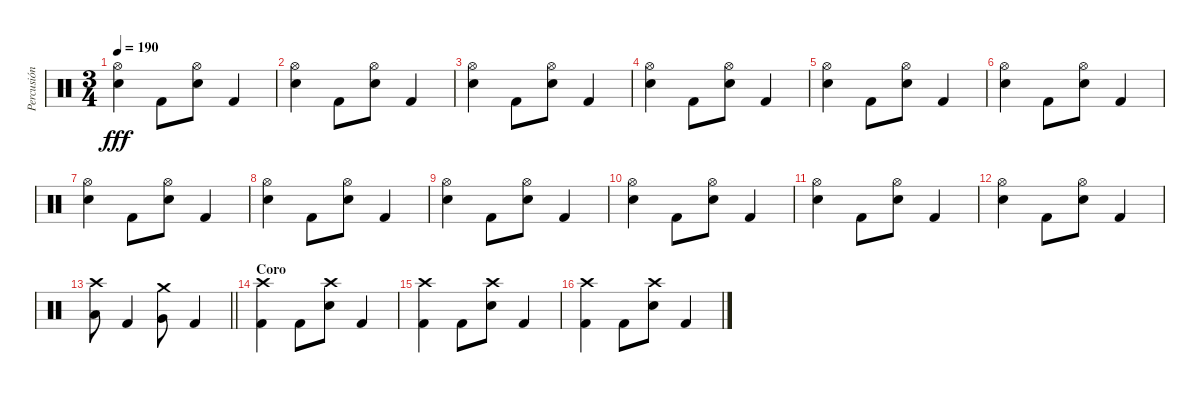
\track ("Percusión" "Percusión") {instrument percussion}
\staff {score}
\articulation defaults
\ts (3 4)
\tempo 190
\clef neutral
\ks c
("Hi-Hat (open)" "Electric Snare (hit)").4{dy fff} "Kick (hit) 2".8 ("Hi-Hat (open)" "Electric Snare (hit)").8 "Kick (hit) 2".4 |
("Hi-Hat (open)" "Electric Snare (hit)").4 "Kick (hit) 2".8 ("Hi-Hat (open)" "Electric Snare (hit)").8 "Kick (hit) 2".4 |
("Hi-Hat (open)" "Electric Snare (hit)").4 "Kick (hit) 2".8 ("Hi-Hat (open)" "Electric Snare (hit)").8 "Kick (hit) 2".4 |
("Hi-Hat (open)" "Electric Snare (hit)").4 "Kick (hit) 2".8 ("Hi-Hat (open)" "Electric Snare (hit)").8 "Kick (hit) 2".4 |
("Hi-Hat (open)" "Electric Snare (hit)").4 "Kick (hit) 2".8 ("Hi-Hat (open)" "Electric Snare (hit)").8 "Kick (hit) 2".4 |
("Hi-Hat (open)" "Electric Snare (hit)").4 "Kick (hit) 2".8 ("Hi-Hat (open)" "Electric Snare (hit)").8 "Kick (hit) 2".4 |
("Hi-Hat (open)" "Electric Snare (hit)").4 "Kick (hit) 2".8 ("Hi-Hat (open)" "Electric Snare (hit)").8 "Kick (hit) 2".4 |
("Hi-Hat (open)" "Electric Snare (hit)").4 "Kick (hit) 2".8 ("Hi-Hat (open)" "Electric Snare (hit)").8 "Kick (hit) 2".4 |
("Hi-Hat (open)" "Electric Snare (hit)").4 "Kick (hit) 2".8 ("Hi-Hat (open)" "Electric Snare (hit)").8 "Kick (hit) 2".4 |
("Hi-Hat (open)" "Electric Snare (hit)").4 "Kick (hit) 2".8 ("Hi-Hat (open)" "Electric Snare (hit)").8 "Kick (hit) 2".4 |
("Hi-Hat (open)" "Electric Snare (hit)").4 "Kick (hit) 2".8 ("Hi-Hat (open)" "Electric Snare (hit)").8 "Kick (hit) 2".4 |
("Hi-Hat (open)" "Electric Snare (hit)").4 "Kick (hit) 2".8 ("Hi-Hat (open)" "Electric Snare (hit)").8 "Kick (hit) 2".4 |
\barLineRight lightlight
("Crash high (hit)" "Low Tom (hit)").8 "Kick (hit) 2".4 ("Crash medium (hit)" "Very Low Tom (hit)").8 "Kick (hit) 2".4 |
\section ("" "Coro")
("Crash high (hit)" "Kick (hit) 2").4 "Kick (hit) 2".8 ("Crash high (hit)" "Electric Snare (hit)").8 "Kick (hit) 2".4 |
("Crash high (hit)" "Kick (hit) 2").4 "Kick (hit) 2".8 ("Crash high (hit)" "Electric Snare (hit)").8 "Kick (hit) 2".4 |
("Crash high (hit)" "Kick (hit) 2").4 "Kick (hit) 2".8 ("Crash high (hit)" "Electric Snare (hit)").8 "Kick (hit) 2".4
